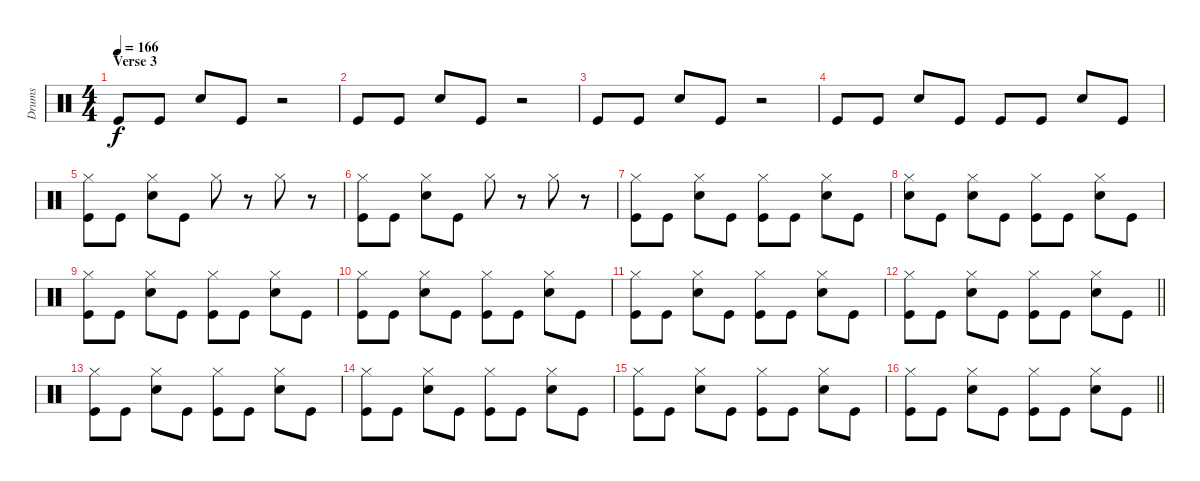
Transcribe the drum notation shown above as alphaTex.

\track ("Drums" "Drums") {instrument percussion}
\staff {score}
\articulation defaults
\ts (4 4)
\section ("" "Verse 3")
\tempo 166
\clef neutral
\ks c "Kick (hit)".8{dy f} "Kick (hit)".8 "Electric Snare (hit)".8 "Kick (hit)".8
r.2 |
"Kick (hit)".8 "Kick (hit)".8 "Electric Snare (hit)".8 "Kick (hit)".8 r.2 |
"Kick (hit)".8 "Kick (hit)".8 "Electric Snare (hit)".8 "Kick (hit)".8 r.2 |
"Kick (hit)".8 "Kick (hit)".8 "Electric Snare (hit)".8 "Kick (hit)".8 "Kick (hit)".8 "Kick (hit)".8 "Electric Snare (hit)".8 "Kick (hit)".8 |
("Hi-Hat (closed)" "Kick (hit)").8 "Kick (hit)".8 ("Hi-Hat (closed)" "Electric Snare (hit)").8 "Kick (hit)".8 "Hi-Hat (closed)".8 r.8 "Hi-Hat (closed)".8 r.8 |
("Hi-Hat (closed)" "Kick (hit)").8 "Kick (hit)".8 ("Hi-Hat (closed)" "Electric Snare (hit)").8 "Kick (hit)".8 "Hi-Hat (closed)".8 r.8 "Hi-Hat (closed)".8 r.8 |
("Hi-Hat (closed)" "Kick (hit)").8 "Kick (hit)".8 ("Hi-Hat (closed)" "Electric Snare (hit)").8 "Kick (hit)".8 ("Hi-Hat (closed)" "Kick (hit)").8 "Kick (hit)".8 ("Hi-Hat (closed)" "Electric Snare (hit)").8 "Kick (hit)".8 |
("Hi-Hat (closed)" "Snare (hit) 2").8 "Kick (hit)".8 ("Hi-Hat (closed)" "Electric Snare (hit)").8 "Kick (hit)".8 ("Hi-Hat (closed)" "Kick (hit)").8 "Kick (hit)".8 ("Hi-Hat (closed)" "Electric Snare (hit)").8 "Kick (hit)".8 |
("Hi-Hat (closed)" "Kick (hit)").8 "Kick (hit)".8 ("Hi-Hat (closed)" "Electric Snare (hit)").8 "Kick (hit)".8 ("Hi-Hat (closed)" "Kick (hit)").8 "Kick (hit)".8 ("Hi-Hat (closed)" "Electric Snare (hit)").8 "Kick (hit)".8 |
("Hi-Hat (closed)" "Kick (hit)").8 "Kick (hit)".8 ("Hi-Hat (closed)" "Electric Snare (hit)").8 "Kick (hit)".8 ("Hi-Hat (closed)" "Kick (hit)").8 "Kick (hit)".8 ("Hi-Hat (closed)" "Electric Snare (hit)").8 "Kick (hit)".8 |
("Hi-Hat (closed)" "Kick (hit)").8 "Kick (hit)".8 ("Hi-Hat (closed)" "Electric Snare (hit)").8 "Kick (hit)".8 ("Hi-Hat (closed)" "Kick (hit)").8 "Kick (hit)".8 ("Hi-Hat (closed)" "Electric Snare (hit)").8 "Kick (hit)".8 |
\barLineRight lightlight
("Hi-Hat (closed)" "Kick (hit)").8 "Kick (hit)".8 ("Hi-Hat (closed)" "Electric Snare (hit)").8 "Kick (hit)".8 ("Hi-Hat (closed)" "Kick (hit)").8 "Kick (hit)".8 ("Hi-Hat (closed)" "Electric Snare (hit)").8 "Kick (hit)".8 |
("Hi-Hat (closed)" "Kick (hit)").8 "Kick (hit)".8 ("Hi-Hat (closed)" "Electric Snare (hit)").8 "Kick (hit)".8 ("Hi-Hat (closed)" "Kick (hit)").8 "Kick (hit)".8 ("Hi-Hat (closed)" "Electric Snare (hit)").8 "Kick (hit)".8 |
("Hi-Hat (closed)" "Kick (hit)").8 "Kick (hit)".8 ("Hi-Hat (closed)" "Electric Snare (hit)").8 "Kick (hit)".8 ("Hi-Hat (closed)" "Kick (hit)").8 "Kick (hit)".8 ("Hi-Hat (closed)" "Electric Snare (hit)").8 "Kick (hit)".8 |
("Hi-Hat (closed)" "Kick (hit)").8 "Kick (hit)".8 ("Hi-Hat (closed)" "Electric Snare (hit)").8 "Kick (hit)".8 ("Hi-Hat (closed)" "Kick (hit)").8 "Kick (hit)".8 ("Hi-Hat (closed)" "Electric Snare (hit)").8 "Kick (hit)".8 |
\barLineRight lightlight
("Hi-Hat (closed)" "Kick (hit)").8 "Kick (hit)".8 ("Hi-Hat (closed)" "Electric Snare (hit)").8 "Kick (hit)".8 ("Hi-Hat (closed)" "Kick (hit)").8 "Kick (hit)".8 ("Hi-Hat (closed)" "Electric Snare (hit)").8 "Kick (hit)".8
